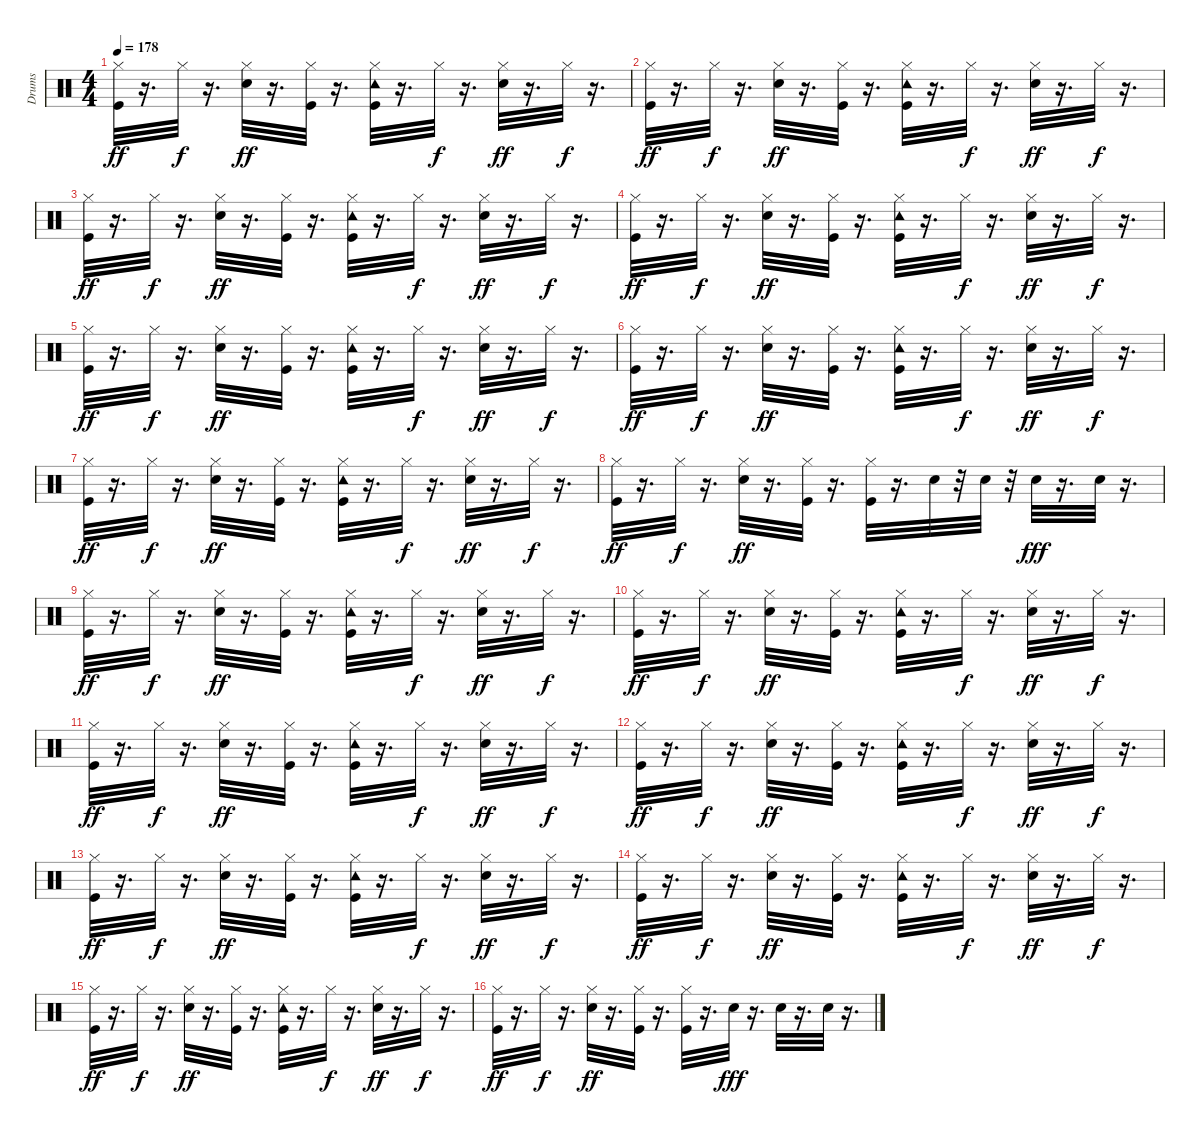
\track ("Drums" "Drums") {instrument percussion}
\staff {score}
\articulation defaults
\ts (4 4)
\tempo 178
\clef neutral
\ks c
("Kick (hit)" "Hi-Hat (closed)").32{dy ff} r.16{d} "Hi-Hat (closed)".32{dy f} r.16{d} ("Snare (hit) 2" "Hi-Hat (closed)").32{dy ff} r.16{d} ("Hi-Hat (closed)" "Kick (hit)").32 r.16{d} ("Kick (hit)" "Tambourine (hit)" "Hi-Hat (closed)").32 r.16{d} "Hi-Hat (closed)".32{dy f} r.16{d} ("Snare (hit) 2" "Hi-Hat (closed)").32{dy ff} r.16{d} "Hi-Hat (closed)".32{dy f} r.16{d} |
("Kick (hit)" "Hi-Hat (closed)").32{dy ff} r.16{d} "Hi-Hat (closed)".32{dy f} r.16{d} ("Snare (hit) 2" "Hi-Hat (closed)").32{dy ff} r.16{d} ("Hi-Hat (closed)" "Kick (hit)").32 r.16{d} ("Kick (hit)" "Tambourine (hit)" "Hi-Hat (closed)").32 r.16{d} "Hi-Hat (closed)".32{dy f} r.16{d} ("Snare (hit) 2" "Hi-Hat (closed)").32{dy ff} r.16{d} "Hi-Hat (closed)".32{dy f} r.16{d} |
("Kick (hit)" "Hi-Hat (closed)").32{dy ff} r.16{d} "Hi-Hat (closed)".32{dy f} r.16{d} ("Snare (hit) 2" "Hi-Hat (closed)").32{dy ff} r.16{d} ("Hi-Hat (closed)" "Kick (hit)").32 r.16{d} ("Kick (hit)" "Tambourine (hit)" "Hi-Hat (closed)").32 r.16{d} "Hi-Hat (closed)".32{dy f} r.16{d} ("Snare (hit) 2" "Hi-Hat (closed)").32{dy ff} r.16{d} "Hi-Hat (closed)".32{dy f} r.16{d} |
("Kick (hit)" "Hi-Hat (closed)").32{dy ff} r.16{d} "Hi-Hat (closed)".32{dy f} r.16{d} ("Snare (hit) 2" "Hi-Hat (closed)").32{dy ff} r.16{d} ("Hi-Hat (closed)" "Kick (hit)").32 r.16{d} ("Kick (hit)" "Tambourine (hit)" "Hi-Hat (closed)").32 r.16{d} "Hi-Hat (closed)".32{dy f} r.16{d} ("Snare (hit) 2" "Hi-Hat (closed)").32{dy ff} r.16{d} "Hi-Hat (closed)".32{dy f} r.16{d} |
("Kick (hit)" "Hi-Hat (closed)").32{dy ff} r.16{d} "Hi-Hat (closed)".32{dy f} r.16{d} ("Snare (hit) 2" "Hi-Hat (closed)").32{dy ff} r.16{d} ("Hi-Hat (closed)" "Kick (hit)").32 r.16{d} ("Kick (hit)" "Tambourine (hit)" "Hi-Hat (closed)").32 r.16{d} "Hi-Hat (closed)".32{dy f} r.16{d} ("Snare (hit) 2" "Hi-Hat (closed)").32{dy ff} r.16{d} "Hi-Hat (closed)".32{dy f} r.16{d} |
("Kick (hit)" "Hi-Hat (closed)").32{dy ff} r.16{d} "Hi-Hat (closed)".32{dy f} r.16{d} ("Snare (hit) 2" "Hi-Hat (closed)").32{dy ff} r.16{d} ("Hi-Hat (closed)" "Kick (hit)").32 r.16{d} ("Kick (hit)" "Tambourine (hit)" "Hi-Hat (closed)").32 r.16{d} "Hi-Hat (closed)".32{dy f} r.16{d} ("Snare (hit) 2" "Hi-Hat (closed)").32{dy ff} r.16{d} "Hi-Hat (closed)".32{dy f} r.16{d} |
("Kick (hit)" "Hi-Hat (closed)").32{dy ff} r.16{d} "Hi-Hat (closed)".32{dy f} r.16{d} ("Snare (hit) 2" "Hi-Hat (closed)").32{dy ff} r.16{d} ("Hi-Hat (closed)" "Kick (hit)").32 r.16{d} ("Kick (hit)" "Tambourine (hit)" "Hi-Hat (closed)").32 r.16{d} "Hi-Hat (closed)".32{dy f} r.16{d} ("Snare (hit) 2" "Hi-Hat (closed)").32{dy ff} r.16{d} "Hi-Hat (closed)".32{dy f} r.16{d} |
("Kick (hit)" "Hi-Hat (closed)").32{dy ff} r.16{d} "Hi-Hat (closed)".32{dy f} r.16{d} ("Snare (hit) 2" "Hi-Hat (closed)").32{dy ff} r.16{d} ("Hi-Hat (closed)" "Kick (hit)").32 r.16{d} ("Kick (hit)" "Hi-Hat (closed)").32 r.16{d} "Snare (hit) 2".32 r.32 "Snare (hit) 2".32 r.32 "Snare (hit) 2".32{dy fff} r.16{d} "Snare (hit) 2".32 r.16{d} |
("Kick (hit)" "Hi-Hat (closed)").32{dy ff} r.16{d} "Hi-Hat (closed)".32{dy f} r.16{d} ("Snare (hit) 2" "Hi-Hat (closed)").32{dy ff} r.16{d} ("Hi-Hat (closed)" "Kick (hit)").32 r.16{d} ("Kick (hit)" "Tambourine (hit)" "Hi-Hat (closed)").32 r.16{d} "Hi-Hat (closed)".32{dy f} r.16{d} ("Snare (hit) 2" "Hi-Hat (closed)").32{dy ff} r.16{d} "Hi-Hat (closed)".32{dy f} r.16{d} |
("Kick (hit)" "Hi-Hat (closed)").32{dy ff} r.16{d} "Hi-Hat (closed)".32{dy f} r.16{d} ("Snare (hit) 2" "Hi-Hat (closed)").32{dy ff} r.16{d} ("Hi-Hat (closed)" "Kick (hit)").32 r.16{d} ("Kick (hit)" "Tambourine (hit)" "Hi-Hat (closed)").32 r.16{d} "Hi-Hat (closed)".32{dy f} r.16{d} ("Snare (hit) 2" "Hi-Hat (closed)").32{dy ff} r.16{d} "Hi-Hat (closed)".32{dy f} r.16{d} |
("Kick (hit)" "Hi-Hat (closed)").32{dy ff} r.16{d} "Hi-Hat (closed)".32{dy f} r.16{d} ("Snare (hit) 2" "Hi-Hat (closed)").32{dy ff} r.16{d} ("Hi-Hat (closed)" "Kick (hit)").32 r.16{d} ("Kick (hit)" "Tambourine (hit)" "Hi-Hat (closed)").32 r.16{d} "Hi-Hat (closed)".32{dy f} r.16{d} ("Snare (hit) 2" "Hi-Hat (closed)").32{dy ff} r.16{d} "Hi-Hat (closed)".32{dy f} r.16{d} |
("Kick (hit)" "Hi-Hat (closed)").32{dy ff} r.16{d} "Hi-Hat (closed)".32{dy f} r.16{d} ("Snare (hit) 2" "Hi-Hat (closed)").32{dy ff} r.16{d} ("Hi-Hat (closed)" "Kick (hit)").32 r.16{d} ("Kick (hit)" "Tambourine (hit)" "Hi-Hat (closed)").32 r.16{d} "Hi-Hat (closed)".32{dy f} r.16{d} ("Snare (hit) 2" "Hi-Hat (closed)").32{dy ff} r.16{d} "Hi-Hat (closed)".32{dy f} r.16{d} |
("Kick (hit)" "Hi-Hat (closed)").32{dy ff} r.16{d} "Hi-Hat (closed)".32{dy f} r.16{d} ("Snare (hit) 2" "Hi-Hat (closed)").32{dy ff} r.16{d} ("Hi-Hat (closed)" "Kick (hit)").32 r.16{d} ("Kick (hit)" "Tambourine (hit)" "Hi-Hat (closed)").32 r.16{d} "Hi-Hat (closed)".32{dy f} r.16{d} ("Snare (hit) 2" "Hi-Hat (closed)").32{dy ff} r.16{d} "Hi-Hat (closed)".32{dy f} r.16{d} |
("Kick (hit)" "Hi-Hat (closed)").32{dy ff} r.16{d} "Hi-Hat (closed)".32{dy f} r.16{d} ("Snare (hit) 2" "Hi-Hat (closed)").32{dy ff} r.16{d} ("Hi-Hat (closed)" "Kick (hit)").32 r.16{d} ("Kick (hit)" "Tambourine (hit)" "Hi-Hat (closed)").32 r.16{d} "Hi-Hat (closed)".32{dy f} r.16{d} ("Snare (hit) 2" "Hi-Hat (closed)").32{dy ff} r.16{d} "Hi-Hat (closed)".32{dy f} r.16{d} |
("Kick (hit)" "Hi-Hat (closed)").32{dy ff} r.16{d} "Hi-Hat (closed)".32{dy f} r.16{d} ("Snare (hit) 2" "Hi-Hat (closed)").32{dy ff} r.16{d} ("Hi-Hat (closed)" "Kick (hit)").32 r.16{d} ("Kick (hit)" "Tambourine (hit)" "Hi-Hat (closed)").32 r.16{d} "Hi-Hat (closed)".32{dy f} r.16{d} ("Snare (hit) 2" "Hi-Hat (closed)").32{dy ff} r.16{d} "Hi-Hat (closed)".32{dy f} r.16{d} |
("Kick (hit)" "Hi-Hat (closed)").32{dy ff} r.16{d} "Hi-Hat (closed)".32{dy f} r.16{d} ("Snare (hit) 2" "Hi-Hat (closed)").32{dy ff} r.16{d} ("Hi-Hat (closed)" "Kick (hit)").32 r.16{d} ("Kick (hit)" "Hi-Hat (closed)").32 r.16{d} "Snare (hit) 2".32{dy fff} r.16{d} "Snare (hit) 2".32 r.16{d} "Snare (hit) 2".32 r.16{d}
